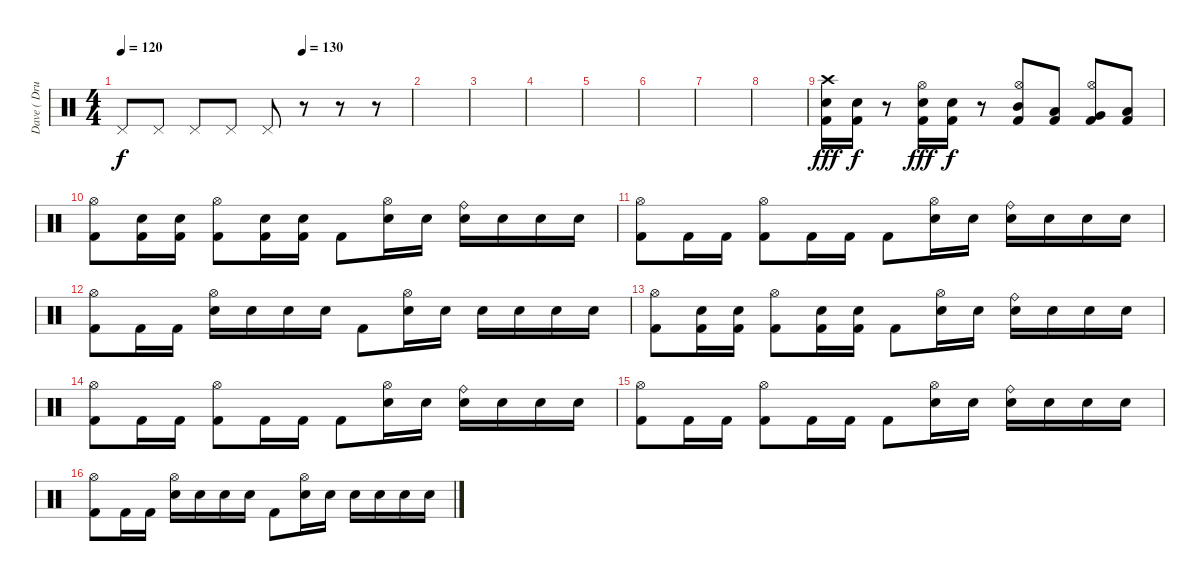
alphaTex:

\track ("Dave ( Drumm )" "Dave ( Dru") {instrument percussion}
\staff {score}
\articulation defaults
\ts (4 4)
\tempo 120
\tempo (130 0.625)
\clef neutral
\ks c "Pedal Hi-Hat (hit)".8{dy f} "Pedal Hi-Hat (hit)".8 "Pedal Hi-Hat (hit)".8 "Pedal Hi-Hat (hit)".8 "Pedal Hi-Hat (hit)".8
r.8 r.8 r.8 |
|
|
|
|
|
|
|
("Crash high (hit)" "Snare (hit) 2" "Kick (hit) 2").16{dy fff} ("Snare (hit) 2" "Kick (hit) 2").16{dy f} r.8 ("Hi-Hat (open)" "Snare (hit) 2" "Kick (hit) 2").16{dy fff} ("Snare (hit) 2" "Kick (hit) 2").16{dy f} r.8 ("Hi-Hat (open)" "Mid Tom (hit)" "Kick (hit) 2").8 ("Low Tom (hit)" "Kick (hit) 2").8 ("Hi-Hat (open)" "Very Low Tom (hit)" "Kick (hit) 2").8 ("Low Floor Tom (hit)" "Kick (hit) 2").8 |
("Hi-Hat (open)" "Kick (hit) 2").8 ("Snare (hit) 2" "Kick (hit) 2").16 ("Snare (hit) 2" "Kick (hit) 2").16 ("Hi-Hat (open)" "Kick (hit) 2").8 ("Snare (hit) 2" "Kick (hit) 2").16 ("Snare (hit) 2" "Kick (hit) 2").16 "Kick (hit) 2".8 ("Hi-Hat (open)" "Snare (hit) 2").16 "Snare (hit) 2".16 ("Ride (bell)" "Snare (hit) 2").16 "Snare (hit) 2".16 "Snare (hit) 2".16 "Snare (hit) 2".16 |
("Hi-Hat (open)" "Kick (hit) 2").8 "Kick (hit) 2".16 "Kick (hit) 2".16 ("Hi-Hat (open)" "Kick (hit) 2").8 "Kick (hit) 2".16 "Kick (hit) 2".16 "Kick (hit) 2".8 ("Hi-Hat (open)" "Snare (hit) 2").16 "Snare (hit) 2".16 ("Ride (bell)" "Snare (hit) 2").16 "Snare (hit) 2".16 "Snare (hit) 2".16 "Snare (hit) 2".16 |
("Hi-Hat (open)" "Kick (hit) 2").8 "Kick (hit) 2".16 "Kick (hit) 2".16 ("Hi-Hat (open)" "Snare (hit) 2").16 "Snare (hit) 2".16 "Snare (hit) 2".16 "Snare (hit) 2".16 "Kick (hit) 2".8 ("Hi-Hat (open)" "Snare (hit) 2").16 "Snare (hit) 2".16 "Snare (hit) 2".16 "Snare (hit) 2".16 "Snare (hit) 2".16 "Snare (hit) 2".16 |
("Hi-Hat (open)" "Kick (hit) 2").8 ("Snare (hit) 2" "Kick (hit) 2").16 ("Snare (hit) 2" "Kick (hit) 2").16 ("Hi-Hat (open)" "Kick (hit) 2").8 ("Snare (hit) 2" "Kick (hit) 2").16 ("Snare (hit) 2" "Kick (hit) 2").16 "Kick (hit) 2".8 ("Hi-Hat (open)" "Snare (hit) 2").16 "Snare (hit) 2".16 ("Ride (bell)" "Snare (hit) 2").16 "Snare (hit) 2".16 "Snare (hit) 2".16 "Snare (hit) 2".16 |
("Hi-Hat (open)" "Kick (hit) 2").8 "Kick (hit) 2".16 "Kick (hit) 2".16 ("Hi-Hat (open)" "Kick (hit) 2").8 "Kick (hit) 2".16 "Kick (hit) 2".16 "Kick (hit) 2".8 ("Hi-Hat (open)" "Snare (hit) 2").16 "Snare (hit) 2".16 ("Ride (bell)" "Snare (hit) 2").16 "Snare (hit) 2".16 "Snare (hit) 2".16 "Snare (hit) 2".16 |
("Hi-Hat (open)" "Kick (hit) 2").8 "Kick (hit) 2".16 "Kick (hit) 2".16 ("Hi-Hat (open)" "Kick (hit) 2").8 "Kick (hit) 2".16 "Kick (hit) 2".16 "Kick (hit) 2".8 ("Hi-Hat (open)" "Snare (hit) 2").16 "Snare (hit) 2".16 ("Ride (bell)" "Snare (hit) 2").16 "Snare (hit) 2".16 "Snare (hit) 2".16 "Snare (hit) 2".16 |
("Hi-Hat (open)" "Kick (hit) 2").8 "Kick (hit) 2".16 "Kick (hit) 2".16 ("Hi-Hat (open)" "Snare (hit) 2").16 "Snare (hit) 2".16 "Snare (hit) 2".16 "Snare (hit) 2".16 "Kick (hit) 2".8 ("Hi-Hat (open)" "Snare (hit) 2").16 "Snare (hit) 2".16 "Snare (hit) 2".16 "Snare (hit) 2".16 "Snare (hit) 2".16 "Snare (hit) 2".16
